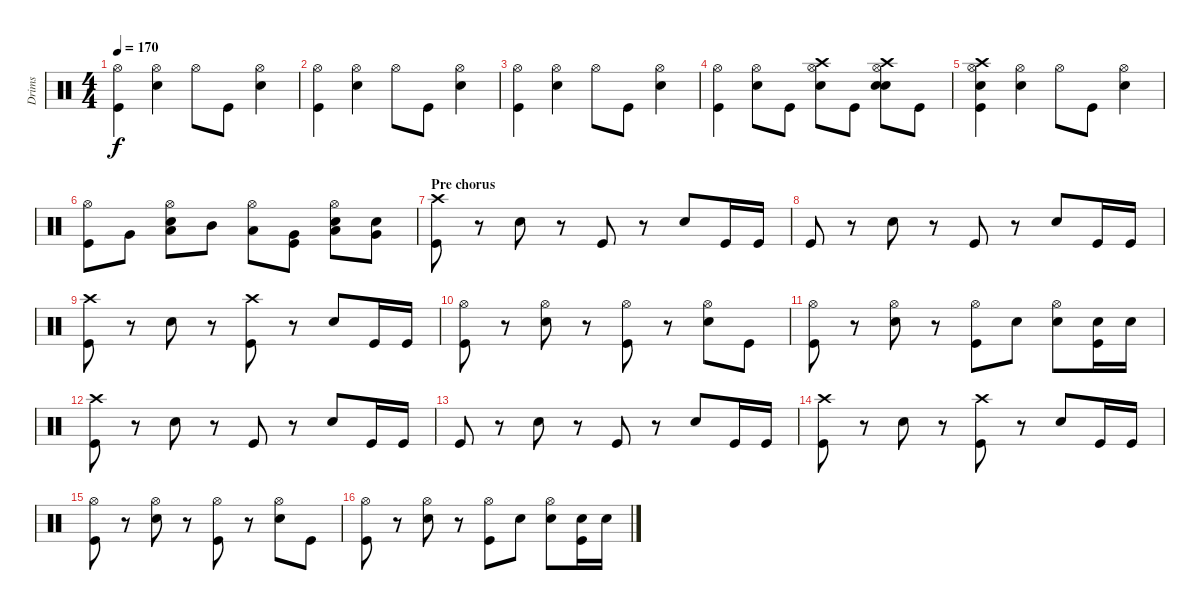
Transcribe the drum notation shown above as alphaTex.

\track ("Drims" "Drims") {instrument percussion}
\staff {score}
\articulation defaults
\ts (4 4)
\tempo 170
\clef neutral
\ks c
("Hi-Hat (open)" "Kick (hit)").4{dy f} ("Hi-Hat (open)" "Electric Snare (hit)").4 "Hi-Hat (open)".8 "Kick (hit)".8 ("Hi-Hat (open)" "Electric Snare (hit)").4 |
("Hi-Hat (open)" "Kick (hit)").4 ("Hi-Hat (open)" "Electric Snare (hit)").4 "Hi-Hat (open)".8 "Kick (hit)".8 ("Hi-Hat (open)" "Electric Snare (hit)").4 |
("Hi-Hat (open)" "Kick (hit)").4 ("Hi-Hat (open)" "Electric Snare (hit)").4 "Hi-Hat (open)".8 "Kick (hit)".8 ("Hi-Hat (open)" "Electric Snare (hit)").4 |
("Hi-Hat (open)" "Kick (hit)").4 ("Hi-Hat (open)" "Electric Snare (hit)").8 "Kick (hit)".8 ("Hi-Hat (open)" "Crash high (hit)" "Electric Snare (hit)").8 "Kick (hit)".8 ("Hi-Hat (open)" "Crash high (hit)" "Electric Snare (hit)" "Electric Snare (hit)").8 "Kick (hit)".8 |
("Hi-Hat (open)" "Crash high (hit)" "Electric Snare (hit)" "Kick (hit)").4 ("Hi-Hat (open)" "Electric Snare (hit)").4 "Hi-Hat (open)".8 "Kick (hit)".8 ("Hi-Hat (open)" "Electric Snare (hit)").4 |
("Hi-Hat (open)" "Kick (hit)").8 "Very Low Tom (hit)".8 ("Hi-Hat (open)" "Electric Snare (hit)" "Low Tom (hit)").8 "Mid Tom (hit)".8 ("Hi-Hat (open)" "Low Tom (hit)").8 ("Very Low Tom (hit)" "Kick (hit)").8 ("Hi-Hat (open)" "Electric Snare (hit)" "Low Floor Tom (hit)").8 ("Electric Snare (hit)" "Very Low Tom (hit)").8 |
\section ("" "Pre chorus")
("Crash high (hit)" "Kick (hit)").8 r.8 "Electric Snare (hit)".8 r.8 "Kick (hit)".8 r.8 "Electric Snare (hit)".8 "Kick (hit)".16 "Kick (hit)".16 |
"Kick (hit)".8 r.8 "Electric Snare (hit)".8 r.8 "Kick (hit)".8 r.8 "Electric Snare (hit)".8 "Kick (hit)".16 "Kick (hit)".16 |
("Crash high (hit)" "Kick (hit)").8 r.8 "Electric Snare (hit)".8 r.8 ("Crash high (hit)" "Kick (hit)").8 r.8 "Electric Snare (hit)".8 "Kick (hit)".16 "Kick (hit)".16 |
("Hi-Hat (open)" "Kick (hit)").8 r.8 ("Hi-Hat (open)" "Electric Snare (hit)").8 r.8 ("Hi-Hat (open)" "Kick (hit)").8 r.8 ("Hi-Hat (open)" "Electric Snare (hit)").8 "Kick (hit)".8 |
("Hi-Hat (open)" "Kick (hit)").8 r.8 ("Hi-Hat (open)" "Electric Snare (hit)").8 r.8 ("Hi-Hat (open)" "Kick (hit)").8 "Electric Snare (hit)".8 ("Hi-Hat (open)" "Electric Snare (hit)").8 ("Electric Snare (hit)" "Kick (hit)").16 "Electric Snare (hit)".16 |
("Crash high (hit)" "Kick (hit)").8 r.8 "Electric Snare (hit)".8 r.8 "Kick (hit)".8 r.8 "Electric Snare (hit)".8 "Kick (hit)".16 "Kick (hit)".16 |
"Kick (hit)".8 r.8 "Electric Snare (hit)".8 r.8 "Kick (hit)".8 r.8 "Electric Snare (hit)".8 "Kick (hit)".16 "Kick (hit)".16 |
("Crash high (hit)" "Kick (hit)").8 r.8 "Electric Snare (hit)".8 r.8 ("Crash high (hit)" "Kick (hit)").8 r.8 "Electric Snare (hit)".8 "Kick (hit)".16 "Kick (hit)".16 |
("Hi-Hat (open)" "Kick (hit)").8 r.8 ("Hi-Hat (open)" "Electric Snare (hit)").8 r.8 ("Hi-Hat (open)" "Kick (hit)").8 r.8 ("Hi-Hat (open)" "Electric Snare (hit)").8 "Kick (hit)".8 |
("Hi-Hat (open)" "Kick (hit)").8 r.8 ("Hi-Hat (open)" "Electric Snare (hit)").8 r.8 ("Hi-Hat (open)" "Kick (hit)").8 "Electric Snare (hit)".8 ("Hi-Hat (open)" "Electric Snare (hit)").8 ("Electric Snare (hit)" "Kick (hit)").16 "Electric Snare (hit)".16
